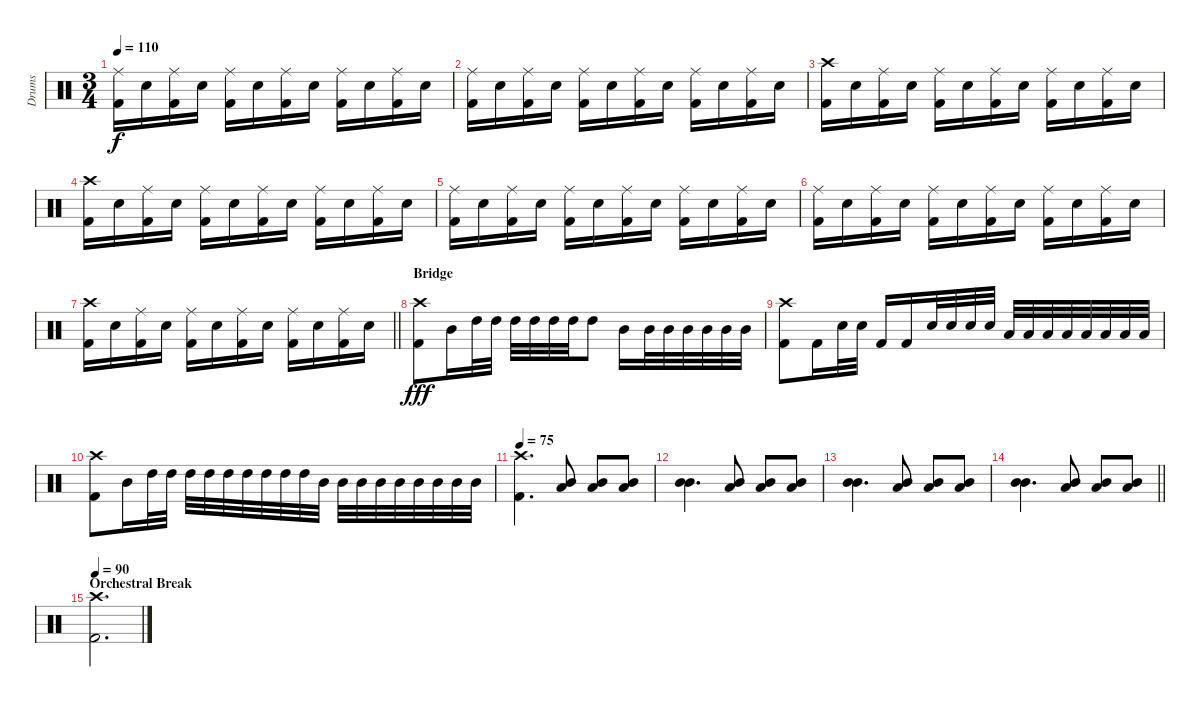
\track ("Drums" "Drums") {instrument percussion}
\staff {score}
\articulation defaults
\ts (3 4)
\tempo 110
\clef neutral
\ks c
("Ride (middle)" "Kick (hit) 2").16{dy f} "Electric Snare (hit)".16 ("Ride (middle)" "Kick (hit) 2").16 "Electric Snare (hit)".16 ("Ride (middle)" "Kick (hit) 2").16 "Electric Snare (hit)".16 ("Ride (middle)" "Kick (hit) 2").16 "Electric Snare (hit)".16 ("Ride (middle)" "Kick (hit) 2").16 "Electric Snare (hit)".16 ("Ride (middle)" "Kick (hit) 2").16 "Electric Snare (hit)".16 |
("Ride (middle)" "Kick (hit) 2").16 "Electric Snare (hit)".16 ("Ride (middle)" "Kick (hit) 2").16 "Electric Snare (hit)".16 ("Ride (middle)" "Kick (hit) 2").16 "Electric Snare (hit)".16 ("Ride (middle)" "Kick (hit) 2").16 "Electric Snare (hit)".16 ("Ride (middle)" "Kick (hit) 2").16 "Electric Snare (hit)".16 ("Ride (middle)" "Kick (hit) 2").16 "Electric Snare (hit)".16 |
("Crash high (hit)" "Kick (hit) 2").16 "Electric Snare (hit)".16 ("Ride (middle)" "Kick (hit) 2").16 "Electric Snare (hit)".16 ("Ride (middle)" "Kick (hit) 2").16 "Electric Snare (hit)".16 ("Ride (middle)" "Kick (hit) 2").16 "Electric Snare (hit)".16 ("Ride (middle)" "Kick (hit) 2").16 "Electric Snare (hit)".16 ("Ride (middle)" "Kick (hit) 2").16 "Electric Snare (hit)".16 |
("Crash high (hit)" "Kick (hit) 2").16 "Electric Snare (hit)".16 ("Ride (middle)" "Kick (hit) 2").16 "Electric Snare (hit)".16 ("Ride (middle)" "Kick (hit) 2").16 "Electric Snare (hit)".16 ("Ride (middle)" "Kick (hit) 2").16 "Electric Snare (hit)".16 ("Ride (middle)" "Kick (hit) 2").16 "Electric Snare (hit)".16 ("Ride (middle)" "Kick (hit) 2").16 "Electric Snare (hit)".16 |
("Ride (middle)" "Kick (hit) 2").16 "Electric Snare (hit)".16 ("Ride (middle)" "Kick (hit) 2").16 "Electric Snare (hit)".16 ("Ride (middle)" "Kick (hit) 2").16 "Electric Snare (hit)".16 ("Ride (middle)" "Kick (hit) 2").16 "Electric Snare (hit)".16 ("Ride (middle)" "Kick (hit) 2").16 "Electric Snare (hit)".16 ("Ride (middle)" "Kick (hit) 2").16 "Electric Snare (hit)".16 |
("Ride (middle)" "Kick (hit) 2").16 "Electric Snare (hit)".16 ("Ride (middle)" "Kick (hit) 2").16 "Electric Snare (hit)".16 ("Ride (middle)" "Kick (hit) 2").16 "Electric Snare (hit)".16 ("Ride (middle)" "Kick (hit) 2").16 "Electric Snare (hit)".16 ("Ride (middle)" "Kick (hit) 2").16 "Electric Snare (hit)".16 ("Ride (middle)" "Kick (hit) 2").16 "Electric Snare (hit)".16 |
\barLineRight lightlight
("Crash high (hit)" "Kick (hit) 2").16 "Electric Snare (hit)".16 ("Ride (middle)" "Kick (hit) 2").16 "Electric Snare (hit)".16 ("Ride (middle)" "Kick (hit) 2").16 "Electric Snare (hit)".16 ("Ride (middle)" "Kick (hit) 2").16 "Electric Snare (hit)".16 ("Ride (middle)" "Kick (hit) 2").16 "Electric Snare (hit)".16 ("Ride (middle)" "Kick (hit) 2").16 "Electric Snare (hit)".16 |
\section ("" "Bridge")
("Crash high (hit)" "Kick (hit) 2").8{dy fff} "Mid Tom (hit)".16 "High Tom (hit)".32 "High Tom (hit)".32 "High Tom (hit)".32 "High Tom (hit)".32 "High Tom (hit)".32 "High Tom (hit)".32 "High Tom (hit)".8 "Mid Tom (hit)".16 "Mid Tom (hit)".32 "Mid Tom (hit)".32 "Mid Tom (hit)".32 "Mid Tom (hit)".32 "Mid Tom (hit)".32 "Mid Tom (hit)".32 |
("Crash high (hit)" "Kick (hit) 2").8 "Kick (hit) 2".16 "Electric Snare (hit)".32 "Electric Snare (hit)".32 "Kick (hit) 2".16 "Kick (hit) 2".16 "Electric Snare (hit)".32 "Electric Snare (hit)".32 "Electric Snare (hit)".32 "Electric Snare (hit)".32 "Low Tom (hit)".32 "Low Tom (hit)".32 "Low Tom (hit)".32 "Low Tom (hit)".32 "Low Floor Tom (hit)".32 "Low Floor Tom (hit)".32 "Low Floor Tom (hit)".32 "Low Floor Tom (hit)".32 |
("Crash high (hit)" "Kick (hit) 2").8 "Mid Tom (hit)".16 "High Tom (hit)".32 "High Tom (hit)".32 "High Tom (hit)".32 "High Tom (hit)".32 "High Tom (hit)".32 "High Tom (hit)".32 "High Tom (hit)".32 "High Tom (hit)".32 "High Tom (hit)".32 "Mid Tom (hit)".32 "Mid Tom (hit)".32 "Mid Tom (hit)".32 "Mid Tom (hit)".32 "Mid Tom (hit)".32 "Mid Tom (hit)".32 "Mid Tom (hit)".32 "Mid Tom (hit)".32 "Mid Tom (hit)".32 |
\tempo 75
("Crash high (hit)" "Kick (hit) 2").4{d} ("Mid Tom (hit)" "Low Floor Tom (hit)").8 ("Mid Tom (hit)" "Low Floor Tom (hit)").8 ("Mid Tom (hit)" "Low Floor Tom (hit)").8 |
("Mid Tom (hit)" "Mid Tom (hit)").4{d} ("Mid Tom (hit)" "Low Floor Tom (hit)").8 ("Mid Tom (hit)" "Low Floor Tom (hit)").8 ("Mid Tom (hit)" "Low Floor Tom (hit)").8 |
("Mid Tom (hit)" "Mid Tom (hit)").4{d} ("Mid Tom (hit)" "Low Floor Tom (hit)").8 ("Mid Tom (hit)" "Low Floor Tom (hit)").8 ("Mid Tom (hit)" "Low Floor Tom (hit)").8 |
\barLineRight lightlight
("Mid Tom (hit)" "Mid Tom (hit)").4{d} ("Mid Tom (hit)" "Low Floor Tom (hit)").8 ("Mid Tom (hit)" "Low Floor Tom (hit)").8 ("Mid Tom (hit)" "Low Floor Tom (hit)").8 |
\section ("" "Orchestral Break")
\tempo 90
("Crash high (hit)" "Kick (hit) 2").2{d}
